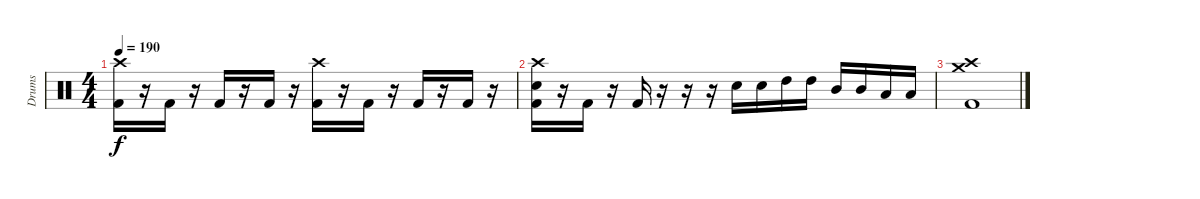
\track ("Drums" "Drums") {instrument percussion}
\staff {score}
\articulation defaults
\ts (4 4)
\tempo 190
\clef neutral
\ks c
("Crash high (hit)" "Kick (hit) 2").16{dy f} r.16 "Kick (hit) 2".16 r.16 "Kick (hit) 2".16 r.16 "Kick (hit) 2".16 r.16 ("Crash high (hit)" "Kick (hit) 2").16 r.16 "Kick (hit) 2".16 r.16 "Kick (hit) 2".16 r.16 "Kick (hit) 2".16 r.16 |
("Crash high (hit)" "Electric Snare (hit)" "Kick (hit) 2").16 r.16 "Kick (hit) 2".16 r.16 "Kick (hit) 2".16 r.16 r.16 r.16 "Electric Snare (hit)".16 "Electric Snare (hit)".16 "High Tom (hit)".16 "High Tom (hit)".16 "Mid Tom (hit)".16 "Mid Tom (hit)".16 "Low Tom (hit)".16 "Low Tom (hit)".16 |
("Crash medium (hit)" "Crash high (hit)" "Kick (hit) 2").1
